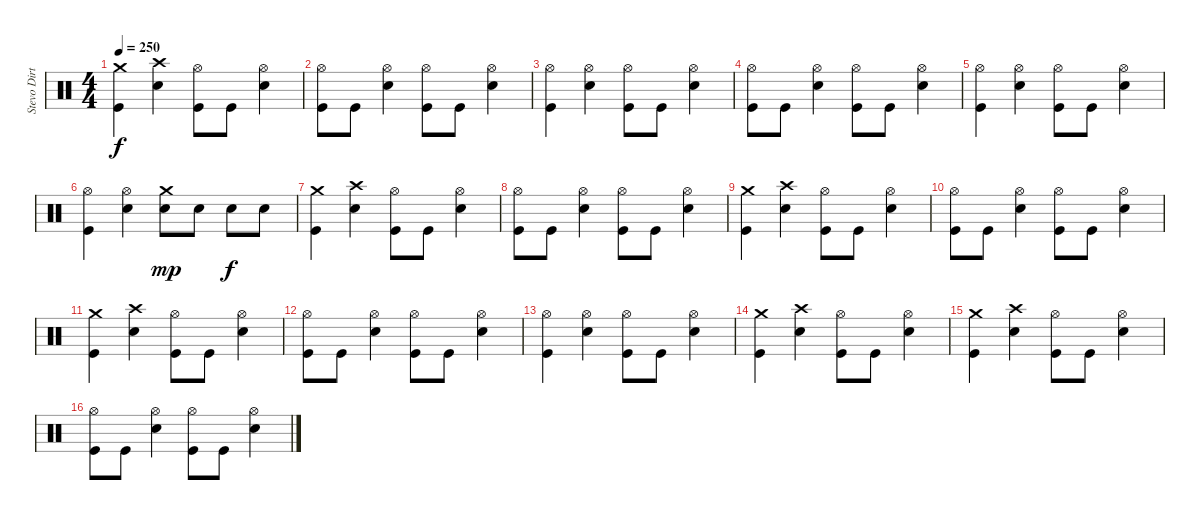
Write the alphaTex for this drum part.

\track ("Stevo Dirty Poo" "Stevo Dirt") {instrument percussion}
\staff {score}
\articulation defaults
\ts (4 4)
\tempo 250
\clef neutral
\ks c
("Crash medium (hit)" "Kick (hit)").4{dy f} ("Crash high (hit)" "Snare (hit) 2").4 ("Hi-Hat (open)" "Kick (hit)").8 "Kick (hit)".8 ("Hi-Hat (open)" "Snare (hit) 2").4 |
("Hi-Hat (open)" "Kick (hit)").8 "Kick (hit)".8 ("Hi-Hat (open)" "Snare (hit) 2").4 ("Hi-Hat (open)" "Kick (hit)").8 "Kick (hit)".8 ("Hi-Hat (open)" "Snare (hit) 2").4 |
("Hi-Hat (open)" "Kick (hit)").4 ("Hi-Hat (open)" "Snare (hit) 2").4 ("Hi-Hat (open)" "Kick (hit)").8 "Kick (hit)".8 ("Hi-Hat (open)" "Snare (hit) 2").4 |
("Hi-Hat (open)" "Kick (hit)").8 "Kick (hit)".8 ("Hi-Hat (open)" "Snare (hit) 2").4 ("Hi-Hat (open)" "Kick (hit)").8 "Kick (hit)".8 ("Hi-Hat (open)" "Snare (hit) 2").4 |
("Hi-Hat (open)" "Kick (hit)").4 ("Hi-Hat (open)" "Snare (hit) 2").4 ("Hi-Hat (open)" "Kick (hit)").8 "Kick (hit)".8 ("Hi-Hat (open)" "Snare (hit) 2").4 |
("Hi-Hat (open)" "Kick (hit)").4 ("Hi-Hat (open)" "Snare (hit) 2").4 ("Crash medium (hit)" "Snare (hit) 2").8{dy mp} "Snare (hit) 2".8 "Snare (hit) 2".8{dy f} "Snare (hit) 2".8 |
("Crash medium (hit)" "Kick (hit)").4 ("Crash high (hit)" "Snare (hit) 2").4 ("Hi-Hat (open)" "Kick (hit)").8 "Kick (hit)".8 ("Hi-Hat (open)" "Snare (hit) 2").4 |
("Hi-Hat (open)" "Kick (hit)").8 "Kick (hit)".8 ("Hi-Hat (open)" "Snare (hit) 2").4 ("Hi-Hat (open)" "Kick (hit)").8 "Kick (hit)".8 ("Hi-Hat (open)" "Snare (hit) 2").4 |
("Crash medium (hit)" "Kick (hit)").4 ("Crash high (hit)" "Snare (hit) 2").4 ("Hi-Hat (open)" "Kick (hit)").8 "Kick (hit)".8 ("Hi-Hat (open)" "Snare (hit) 2").4 |
("Hi-Hat (open)" "Kick (hit)").8 "Kick (hit)".8 ("Hi-Hat (open)" "Snare (hit) 2").4 ("Hi-Hat (open)" "Kick (hit)").8 "Kick (hit)".8 ("Hi-Hat (open)" "Snare (hit) 2").4 |
("Crash medium (hit)" "Kick (hit)").4 ("Crash high (hit)" "Snare (hit) 2").4 ("Hi-Hat (open)" "Kick (hit)").8 "Kick (hit)".8 ("Hi-Hat (open)" "Snare (hit) 2").4 |
("Hi-Hat (open)" "Kick (hit)").8 "Kick (hit)".8 ("Hi-Hat (open)" "Snare (hit) 2").4 ("Hi-Hat (open)" "Kick (hit)").8 "Kick (hit)".8 ("Hi-Hat (open)" "Snare (hit) 2").4 |
("Hi-Hat (open)" "Kick (hit)").4 ("Hi-Hat (open)" "Snare (hit) 2").4 ("Hi-Hat (open)" "Kick (hit)").8 "Kick (hit)".8 ("Hi-Hat (open)" "Snare (hit) 2").4 |
("Crash medium (hit)" "Kick (hit)").4 ("Crash high (hit)" "Snare (hit) 2").4 ("Hi-Hat (open)" "Kick (hit)").8 "Kick (hit)".8 ("Hi-Hat (open)" "Snare (hit) 2").4 |
("Crash medium (hit)" "Kick (hit)").4 ("Crash high (hit)" "Snare (hit) 2").4 ("Hi-Hat (open)" "Kick (hit)").8 "Kick (hit)".8 ("Hi-Hat (open)" "Snare (hit) 2").4 |
("Hi-Hat (open)" "Kick (hit)").8 "Kick (hit)".8 ("Hi-Hat (open)" "Snare (hit) 2").4 ("Hi-Hat (open)" "Kick (hit)").8 "Kick (hit)".8 ("Hi-Hat (open)" "Snare (hit) 2").4
